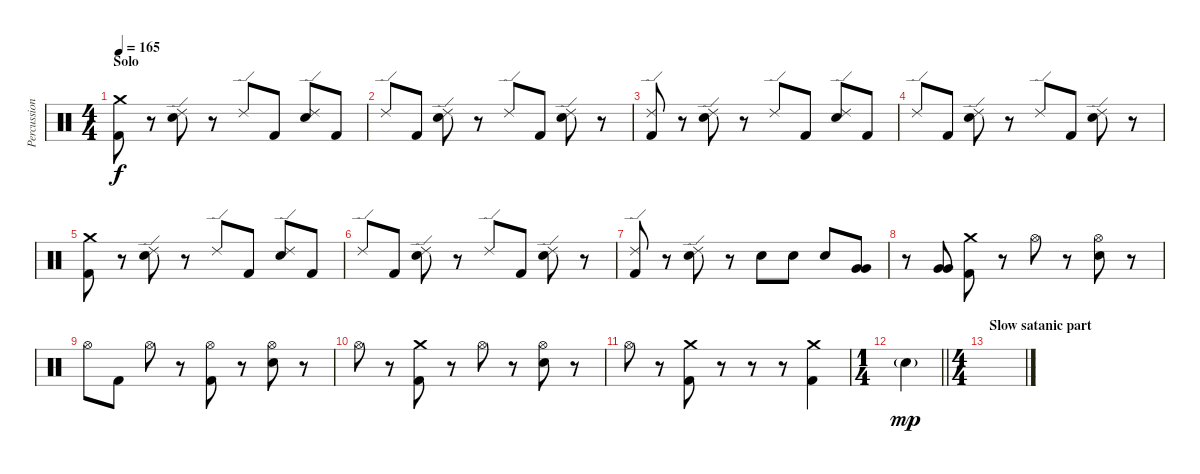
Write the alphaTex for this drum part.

\track ("Percussion" "Percussion") {instrument percussion}
\staff {score}
\articulation defaults
\ts (4 4)
\section ("" "Solo")
\tempo 165
\clef neutral
\ks c
("Crash medium (hit)" "Kick (hit) 2").8{dy f} r.8 ("Ride (edge) 2" "Electric Snare (hit)").8 r.8 "Ride (edge) 2".8 "Kick (hit) 2".8 ("Ride (edge) 2" "Electric Snare (hit)").8 "Kick (hit) 2".8 |
"Ride (edge) 2".8 "Kick (hit) 2".8 ("Ride (edge) 2" "Electric Snare (hit)").8 r.8 "Ride (edge) 2".8 "Kick (hit) 2".8 ("Ride (edge) 2" "Electric Snare (hit)").8 r.8 |
("Ride (edge) 2" "Kick (hit) 2").8 r.8 ("Ride (edge) 2" "Electric Snare (hit)").8 r.8 "Ride (edge) 2".8 "Kick (hit) 2".8 ("Ride (edge) 2" "Electric Snare (hit)").8 "Kick (hit) 2".8 |
"Ride (edge) 2".8 "Kick (hit) 2".8 ("Ride (edge) 2" "Electric Snare (hit)").8 r.8 "Ride (edge) 2".8 "Kick (hit) 2".8 ("Ride (edge) 2" "Electric Snare (hit)").8 r.8 |
("Crash medium (hit)" "Kick (hit) 2").8 r.8 ("Ride (edge) 2" "Electric Snare (hit)").8 r.8 "Ride (edge) 2".8 "Kick (hit) 2".8 ("Ride (edge) 2" "Electric Snare (hit)").8 "Kick (hit) 2".8 |
"Ride (edge) 2".8 "Kick (hit) 2".8 ("Ride (edge) 2" "Electric Snare (hit)").8 r.8 "Ride (edge) 2".8 "Kick (hit) 2".8 ("Ride (edge) 2" "Electric Snare (hit)").8 r.8 |
("Ride (edge) 2" "Kick (hit) 2").8 r.8 ("Ride (edge) 2" "Electric Snare (hit)").8 r.8 "Electric Snare (hit)".8 "Electric Snare (hit)".8 "Electric Snare (hit)".8 ("Very Low Tom (hit)" "Very Low Tom (hit)").8 |
r.8 ("Very Low Tom (hit)" "Very Low Tom (hit)").8 ("Crash medium (hit)" "Kick (hit) 2").8 r.8 "Hi-Hat (open)".8 r.8 ("Hi-Hat (open)" "Electric Snare (hit)").8 r.8 |
"Hi-Hat (open)".8 "Kick (hit) 2".8 "Hi-Hat (open)".8 r.8 ("Hi-Hat (open)" "Kick (hit) 2").8 r.8 ("Hi-Hat (open)" "Electric Snare (hit)").8 r.8 |
"Hi-Hat (open)".8 r.8 ("Crash medium (hit)" "Kick (hit) 2").8 r.8 "Hi-Hat (open)".8 r.8 ("Hi-Hat (open)" "Electric Snare (hit)").8 r.8 |
"Hi-Hat (open)".8 r.8 ("Crash medium (hit)" "Kick (hit) 2").8 r.8 r.8 r.8 ("Crash medium (hit)" "Kick (hit) 2").4 |
\ts (1 4)
\barLineRight lightlight "Snare (hit)"{g}.4{dy mp}
|
\ts (4 4)
\section ("" "Slow satanic part")
